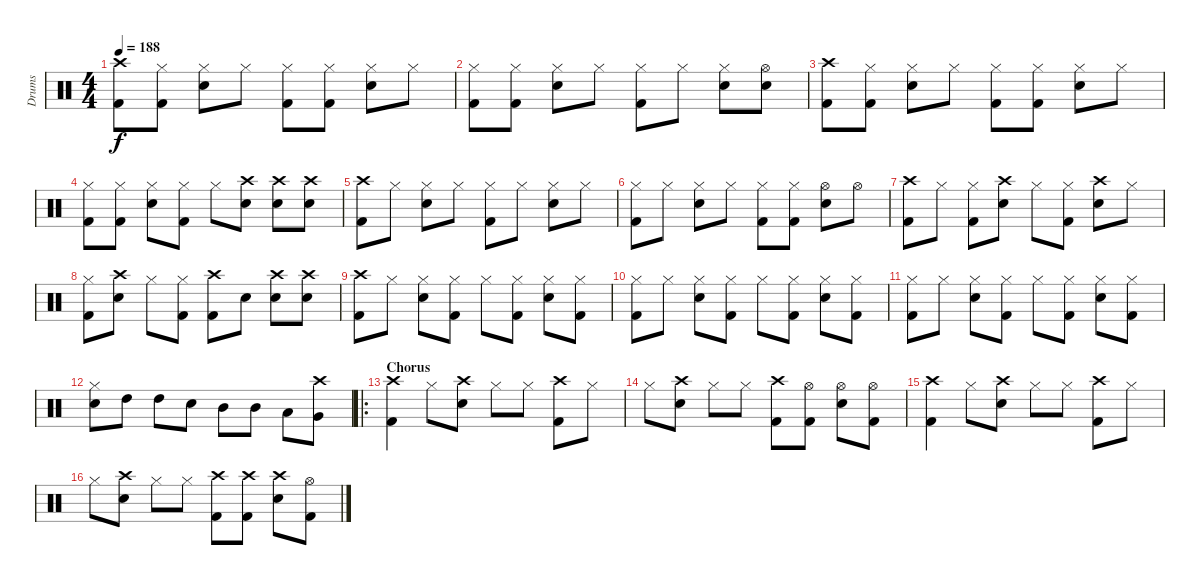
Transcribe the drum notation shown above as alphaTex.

\track ("Drums" "Drums") {instrument percussion}
\staff {score}
\articulation defaults
\ts (4 4)
\tempo 188
\clef neutral
\ks c
("Crash high (hit)" "Kick (hit) 2").8{dy f} ("Hi-Hat (closed)" "Kick (hit) 2").8 ("Hi-Hat (closed)" "Snare (hit) 2").8 "Hi-Hat (closed)".8 ("Hi-Hat (closed)" "Kick (hit) 2").8 ("Hi-Hat (closed)" "Kick (hit) 2").8 ("Hi-Hat (closed)" "Snare (hit) 2").8 "Hi-Hat (closed)".8 |
("Hi-Hat (closed)" "Kick (hit) 2").8 ("Hi-Hat (closed)" "Kick (hit) 2").8 ("Hi-Hat (closed)" "Snare (hit) 2").8 "Hi-Hat (closed)".8 ("Hi-Hat (closed)" "Kick (hit) 2").8 "Hi-Hat (closed)".8 ("Hi-Hat (closed)" "Snare (hit) 2").8 ("Hi-Hat (open)" "Snare (hit) 2").8 |
("Crash high (hit)" "Kick (hit) 2").8 ("Hi-Hat (closed)" "Kick (hit) 2").8 ("Hi-Hat (closed)" "Snare (hit) 2").8 "Hi-Hat (closed)".8 ("Hi-Hat (closed)" "Kick (hit) 2").8 ("Hi-Hat (closed)" "Kick (hit) 2").8 ("Hi-Hat (closed)" "Snare (hit) 2").8 "Hi-Hat (closed)".8 |
("Hi-Hat (closed)" "Kick (hit) 2").8 ("Hi-Hat (closed)" "Kick (hit) 2").8 ("Hi-Hat (closed)" "Snare (hit) 2").8 ("Hi-Hat (closed)" "Kick (hit) 2").8 "Hi-Hat (closed)".8 ("Crash high (hit)" "Snare (hit) 2").8 ("Crash high (hit)" "Snare (hit) 2").8 ("Crash high (hit)" "Snare (hit) 2").8 |
("Crash high (hit)" "Kick (hit) 2").8 "Hi-Hat (closed)".8 ("Hi-Hat (closed)" "Snare (hit) 2").8 "Hi-Hat (closed)".8 ("Hi-Hat (closed)" "Kick (hit) 2").8 "Hi-Hat (closed)".8 ("Hi-Hat (closed)" "Snare (hit) 2").8 "Hi-Hat (closed)".8 |
("Hi-Hat (closed)" "Kick (hit) 2").8 "Hi-Hat (closed)".8 ("Hi-Hat (closed)" "Snare (hit) 2").8 "Hi-Hat (closed)".8 ("Hi-Hat (closed)" "Kick (hit) 2").8 ("Hi-Hat (closed)" "Kick (hit) 2").8 ("Hi-Hat (open)" "Snare (hit) 2").8 "Hi-Hat (open)".8 |
("Crash high (hit)" "Kick (hit) 2").8 "Hi-Hat (closed)".8 ("Hi-Hat (closed)" "Kick (hit) 2").8 ("Crash high (hit)" "Snare (hit) 2").8 "Hi-Hat (closed)".8 ("Hi-Hat (closed)" "Kick (hit) 2").8 ("Crash high (hit)" "Snare (hit) 2").8 "Hi-Hat (closed)".8 |
("Hi-Hat (closed)" "Kick (hit) 2").8 ("Crash high (hit)" "Snare (hit) 2").8 "Hi-Hat (closed)".8 ("Hi-Hat (closed)" "Kick (hit) 2").8 ("Crash high (hit)" "Kick (hit) 2").8 "Snare (hit) 2".8 ("Crash high (hit)" "Snare (hit) 2").8 ("Crash high (hit)" "Snare (hit) 2").8 |
("Crash high (hit)" "Kick (hit) 2").8 "Hi-Hat (closed)".8 ("Hi-Hat (closed)" "Snare (hit) 2").8 ("Hi-Hat (closed)" "Kick (hit) 2").8 "Hi-Hat (closed)".8 ("Hi-Hat (closed)" "Kick (hit) 2").8 ("Hi-Hat (closed)" "Snare (hit) 2").8 ("Hi-Hat (closed)" "Kick (hit) 2").8 |
("Hi-Hat (closed)" "Kick (hit) 2").8 "Hi-Hat (closed)".8 ("Hi-Hat (closed)" "Snare (hit) 2").8 ("Hi-Hat (closed)" "Kick (hit) 2").8 "Hi-Hat (closed)".8 ("Hi-Hat (closed)" "Kick (hit) 2").8 ("Hi-Hat (closed)" "Snare (hit) 2").8 ("Hi-Hat (closed)" "Kick (hit) 2").8 |
("Hi-Hat (closed)" "Kick (hit) 2").8 "Hi-Hat (closed)".8 ("Hi-Hat (closed)" "Snare (hit) 2").8 ("Hi-Hat (closed)" "Kick (hit) 2").8 "Hi-Hat (closed)".8 ("Hi-Hat (closed)" "Kick (hit) 2").8 ("Hi-Hat (closed)" "Snare (hit) 2").8 ("Hi-Hat (closed)" "Kick (hit) 2").8 |
("Hi-Hat (closed)" "Snare (hit) 2").8 "High Tom (hit)".8 "High Tom (hit)".8 "Snare (hit) 2".8 "Mid Tom (hit)".8 "Mid Tom (hit)".8 "Low Tom (hit)".8 ("Crash high (hit)" "Very Low Tom (hit)").8 |
\ro
\section ("" "Chorus")
("Crash high (hit)" "Kick (hit) 2").4 "Hi-Hat (closed)".8 ("Crash high (hit)" "Snare (hit) 2").8 "Hi-Hat (closed)".8 "Hi-Hat (closed)".8 ("Crash high (hit)" "Kick (hit) 2").8 "Hi-Hat (closed)".8 |
"Hi-Hat (closed)".8 ("Crash high (hit)" "Snare (hit) 2").8 "Hi-Hat (closed)".8 "Hi-Hat (closed)".8 ("Crash high (hit)" "Kick (hit) 2").8 ("Hi-Hat (open)" "Kick (hit) 2").8 ("Hi-Hat (open)" "Snare (hit) 2").8 ("Hi-Hat (open)" "Kick (hit) 2").8 |
("Crash high (hit)" "Kick (hit) 2").4 "Hi-Hat (closed)".8 ("Crash high (hit)" "Snare (hit) 2").8 "Hi-Hat (closed)".8 "Hi-Hat (closed)".8 ("Crash high (hit)" "Kick (hit) 2").8 "Hi-Hat (closed)".8 |
"Hi-Hat (closed)".8 ("Crash high (hit)" "Snare (hit) 2").8 "Hi-Hat (closed)".8 "Hi-Hat (closed)".8 ("Crash high (hit)" "Kick (hit) 2").8 ("Crash high (hit)" "Kick (hit) 2").8 ("Crash high (hit)" "Snare (hit) 2").8 ("Hi-Hat (open)" "Kick (hit) 2").8
